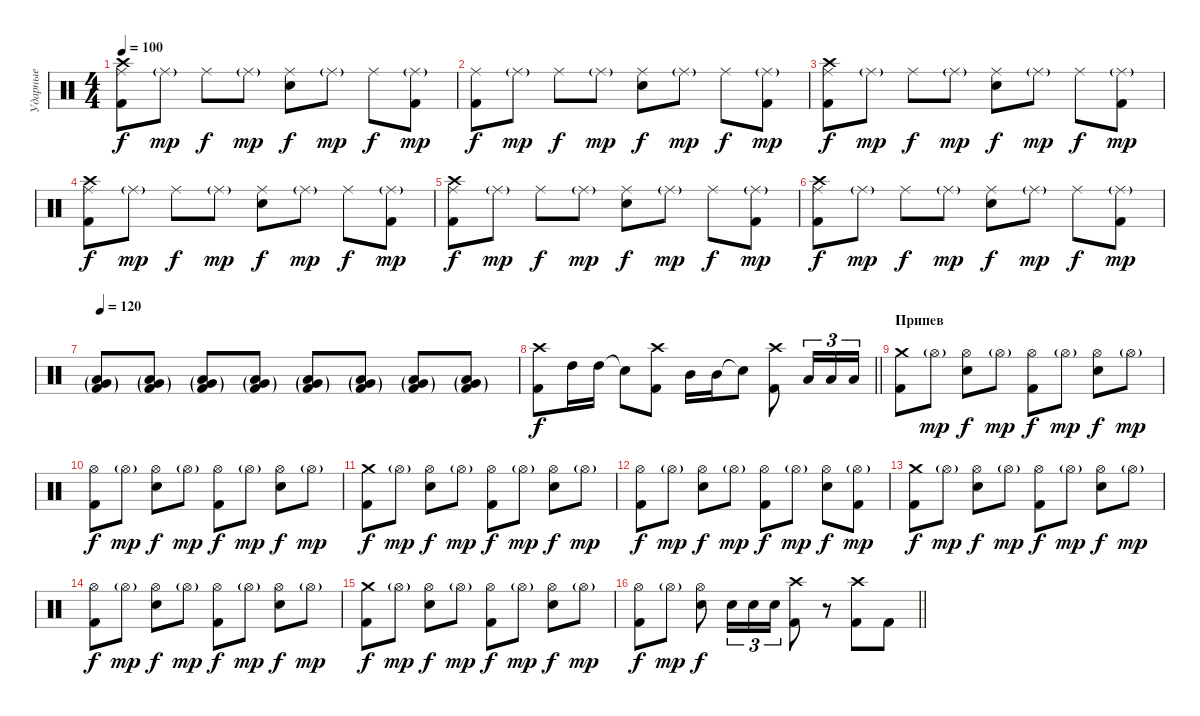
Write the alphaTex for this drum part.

\track ("Ударные" "Ударные") {instrument percussion}
\staff {score}
\articulation defaults
\ts (4 4)
\tempo 100
\clef neutral
\ks c
("Ride (middle)" "Crash high (hit)" "Kick (hit) 2").8{dy f} "Ride (middle)"{g}.8{dy mp} "Ride (middle)".8{dy f} "Ride (middle)"{g}.8{dy mp} ("Ride (middle)" "Snare (hit) 2").8{dy f} "Ride (middle)"{g}.8{dy mp} "Ride (middle)".8{dy f} ("Ride (middle)"{g} "Kick (hit) 2").8{dy mp} |
("Ride (middle)" "Kick (hit) 2").8{dy f} "Ride (middle)"{g}.8{dy mp} "Ride (middle)".8{dy f} "Ride (middle)"{g}.8{dy mp} ("Ride (middle)" "Snare (hit) 2").8{dy f} "Ride (middle)"{g}.8{dy mp} "Ride (middle)".8{dy f} ("Ride (middle)"{g} "Kick (hit) 2").8{dy mp} |
("Ride (middle)" "Crash high (hit)" "Kick (hit) 2").8{dy f} "Ride (middle)"{g}.8{dy mp} "Ride (middle)".8{dy f} "Ride (middle)"{g}.8{dy mp} ("Ride (middle)" "Snare (hit) 2").8{dy f} "Ride (middle)"{g}.8{dy mp} "Ride (middle)".8{dy f} ("Ride (middle)"{g} "Kick (hit) 2").8{dy mp} |
("Ride (middle)" "Crash high (hit)" "Kick (hit) 2").8{dy f} "Ride (middle)"{g}.8{dy mp} "Ride (middle)".8{dy f} "Ride (middle)"{g}.8{dy mp} ("Ride (middle)" "Snare (hit) 2").8{dy f} "Ride (middle)"{g}.8{dy mp} "Ride (middle)".8{dy f} ("Ride (middle)"{g} "Kick (hit) 2").8{dy mp} |
("Ride (middle)" "Crash high (hit)" "Kick (hit) 2").8{dy f} "Ride (middle)"{g}.8{dy mp} "Ride (middle)".8{dy f} "Ride (middle)"{g}.8{dy mp} ("Ride (middle)" "Snare (hit) 2").8{dy f} "Ride (middle)"{g}.8{dy mp} "Ride (middle)".8{dy f} ("Ride (middle)"{g} "Kick (hit) 2").8{dy mp} |
("Ride (middle)" "Crash high (hit)" "Kick (hit) 2").8{dy f} "Ride (middle)"{g}.8{dy mp} "Ride (middle)".8{dy f} "Ride (middle)"{g}.8{dy mp} ("Ride (middle)" "Snare (hit) 2").8{dy f} "Ride (middle)"{g}.8{dy mp} "Ride (middle)".8{dy f} ("Ride (middle)"{g} "Kick (hit) 2").8{dy mp} |
\tempo 120
("Kick (hit) 2"{g} "Low Floor Tom (hit)"{g} "Very Low Tom (hit)"{g}).8 ("Kick (hit) 2"{g} "Low Floor Tom (hit)"{g} "Very Low Tom (hit)"{g}).8 ("Kick (hit) 2"{g} "Low Floor Tom (hit)"{g} "Very Low Tom (hit)"{g}).8 ("Kick (hit) 2"{g} "Low Floor Tom (hit)"{g} "Very Low Tom (hit)"{g}).8 ("Kick (hit) 2"{g} "Low Floor Tom (hit)"{g} "Very Low Tom (hit)"{g}).8 ("Kick (hit) 2"{g} "Low Floor Tom (hit)"{g} "Very Low Tom (hit)"{g}).8 ("Kick (hit) 2"{g} "Low Floor Tom (hit)"{g} "Very Low Tom (hit)"{g}).8 ("Kick (hit) 2"{g} "Low Floor Tom (hit)"{g} "Very Low Tom (hit)"{g}).8 |
\barLineRight lightlight
("Crash high (hit)" "Kick (hit) 2").8{dy f} "High Tom (hit)".16 "High Tom (hit)".16 "Snare (hit)"{t}.8 ("Crash high (hit)" "Kick (hit) 2").8 "Mid Tom (hit)".16 "Mid Tom (hit)".16 "Snare (hit)"{t}.8 ("Crash high (hit)" "Kick (hit) 2").8 "Low Tom (hit)".16{tu (3 2)} "Low Tom (hit)".16{tu (3 2)} "Low Tom (hit)".16{tu (3 2)} |
\section ("" "Припев")
("Crash medium (hit)" "Kick (hit) 2").8 "Hi-Hat (open)"{g}.8{dy mp} ("Hi-Hat (open)" "Snare (hit) 2").8{dy f} "Hi-Hat (open)"{g}.8{dy mp} ("Hi-Hat (open)" "Kick (hit) 2").8{dy f} "Hi-Hat (open)"{g}.8{dy mp} ("Hi-Hat (open)" "Snare (hit) 2").8{dy f} "Hi-Hat (open)"{g}.8{dy mp} |
("Hi-Hat (open)" "Kick (hit) 2").8{dy f} "Hi-Hat (open)"{g}.8{dy mp} ("Hi-Hat (open)" "Snare (hit) 2").8{dy f} "Hi-Hat (open)"{g}.8{dy mp} ("Hi-Hat (open)" "Kick (hit) 2").8{dy f} "Hi-Hat (open)"{g}.8{dy mp} ("Hi-Hat (open)" "Snare (hit) 2").8{dy f} "Hi-Hat (open)"{g}.8{dy mp} |
("Crash medium (hit)" "Kick (hit) 2").8{dy f} "Hi-Hat (open)"{g}.8{dy mp} ("Hi-Hat (open)" "Snare (hit) 2").8{dy f} "Hi-Hat (open)"{g}.8{dy mp} ("Hi-Hat (open)" "Kick (hit) 2").8{dy f} "Hi-Hat (open)"{g}.8{dy mp} ("Hi-Hat (open)" "Snare (hit) 2").8{dy f} "Hi-Hat (open)"{g}.8{dy mp} |
("Hi-Hat (open)" "Kick (hit) 2").8{dy f} "Hi-Hat (open)"{g}.8{dy mp} ("Hi-Hat (open)" "Snare (hit) 2").8{dy f} "Hi-Hat (open)"{g}.8{dy mp} ("Hi-Hat (open)" "Kick (hit) 2").8{dy f} "Hi-Hat (open)"{g}.8{dy mp} ("Hi-Hat (open)" "Snare (hit) 2").8{dy f} ("Hi-Hat (open)"{g} "Kick (hit) 2").8{dy mp} |
("Crash medium (hit)" "Kick (hit) 2").8{dy f} "Hi-Hat (open)"{g}.8{dy mp} ("Hi-Hat (open)" "Snare (hit) 2").8{dy f} "Hi-Hat (open)"{g}.8{dy mp} ("Hi-Hat (open)" "Kick (hit) 2").8{dy f} "Hi-Hat (open)"{g}.8{dy mp} ("Hi-Hat (open)" "Snare (hit) 2").8{dy f} "Hi-Hat (open)"{g}.8{dy mp} |
("Hi-Hat (open)" "Kick (hit) 2").8{dy f} "Hi-Hat (open)"{g}.8{dy mp} ("Hi-Hat (open)" "Snare (hit) 2").8{dy f} "Hi-Hat (open)"{g}.8{dy mp} ("Hi-Hat (open)" "Kick (hit) 2").8{dy f} "Hi-Hat (open)"{g}.8{dy mp} ("Hi-Hat (open)" "Snare (hit) 2").8{dy f} "Hi-Hat (open)"{g}.8{dy mp} |
("Crash medium (hit)" "Kick (hit) 2").8{dy f} "Hi-Hat (open)"{g}.8{dy mp} ("Hi-Hat (open)" "Snare (hit) 2").8{dy f} "Hi-Hat (open)"{g}.8{dy mp} ("Hi-Hat (open)" "Kick (hit) 2").8{dy f} "Hi-Hat (open)"{g}.8{dy mp} ("Hi-Hat (open)" "Snare (hit) 2").8{dy f} "Hi-Hat (open)"{g}.8{dy mp} |
\barLineRight lightlight
("Hi-Hat (open)" "Kick (hit) 2").8{dy f} "Hi-Hat (open)"{g}.8{dy mp} ("Hi-Hat (open)" "Snare (hit) 2").8{dy f} "Snare (hit) 2".16{tu (3 2)} "Snare (hit) 2".16{tu (3 2)} "Snare (hit) 2".16{tu (3 2)} ("Crash high (hit)" "Kick (hit) 2").8 r.8{volume 0} ("Crash high (hit)" "Kick (hit) 2").8{volume 13} "Kick (hit) 2".8
